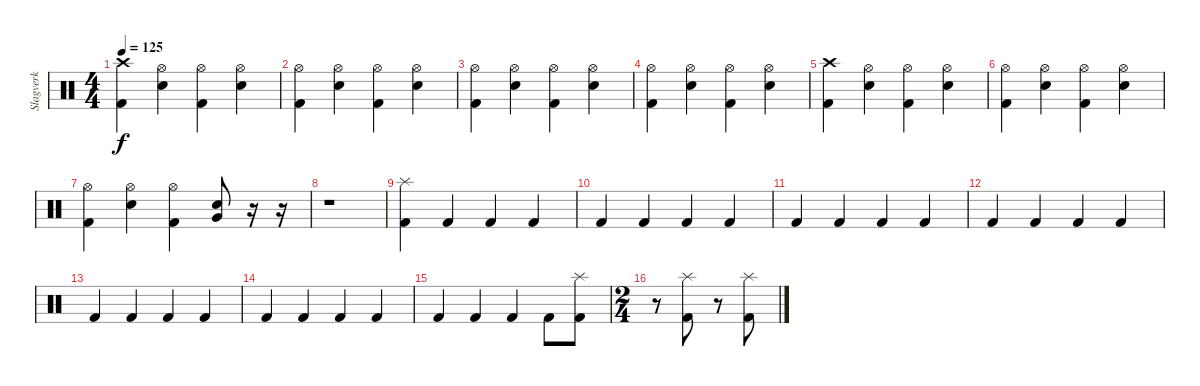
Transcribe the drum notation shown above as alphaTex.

\track ("Slagverk" "Slagverk") {instrument percussion}
\staff {score}
\articulation defaults
\ts (4 4)
\tempo 125
\clef neutral
\ks c
("Crash high (hit)" "Kick (hit) 2").4{dy f} ("Hi-Hat (open)" "Snare (hit) 2").4 ("Hi-Hat (open)" "Kick (hit) 2").4 ("Hi-Hat (open)" "Snare (hit) 2").4 |
("Hi-Hat (open)" "Kick (hit) 2").4 ("Hi-Hat (open)" "Snare (hit) 2").4 ("Hi-Hat (open)" "Kick (hit) 2").4 ("Hi-Hat (open)" "Snare (hit) 2").4 |
("Hi-Hat (open)" "Kick (hit) 2").4 ("Hi-Hat (open)" "Snare (hit) 2").4 ("Hi-Hat (open)" "Kick (hit) 2").4 ("Hi-Hat (open)" "Snare (hit) 2").4 |
("Hi-Hat (open)" "Kick (hit) 2").4 ("Hi-Hat (open)" "Snare (hit) 2").4 ("Hi-Hat (open)" "Kick (hit) 2").4 ("Hi-Hat (open)" "Snare (hit) 2").4 |
("Crash high (hit)" "Kick (hit) 2").4 ("Hi-Hat (open)" "Snare (hit) 2").4 ("Hi-Hat (open)" "Kick (hit) 2").4 ("Hi-Hat (open)" "Snare (hit) 2").4 |
("Hi-Hat (open)" "Kick (hit) 2").4 ("Hi-Hat (open)" "Snare (hit) 2").4 ("Hi-Hat (open)" "Kick (hit) 2").4 ("Hi-Hat (open)" "Snare (hit) 2").4 |
("Hi-Hat (open)" "Kick (hit) 2").4 ("Hi-Hat (open)" "Snare (hit) 2").4 ("Hi-Hat (open)" "Kick (hit) 2").4 ("Very Low Tom (hit)" "Snare (hit) 2").8 r.16 r.16 |
r.1 |
("Splash (hit)" "Kick (hit) 2").4 "Kick (hit) 2".4 "Kick (hit) 2".4 "Kick (hit) 2".4 |
"Kick (hit) 2".4 "Kick (hit) 2".4 "Kick (hit) 2".4 "Kick (hit) 2".4 |
"Kick (hit) 2".4 "Kick (hit) 2".4 "Kick (hit) 2".4 "Kick (hit) 2".4 |
"Kick (hit) 2".4 "Kick (hit) 2".4 "Kick (hit) 2".4 "Kick (hit) 2".4 |
"Kick (hit) 2".4 "Kick (hit) 2".4 "Kick (hit) 2".4 "Kick (hit) 2".4 |
"Kick (hit) 2".4 "Kick (hit) 2".4 "Kick (hit) 2".4 "Kick (hit) 2".4 |
"Kick (hit) 2".4 "Kick (hit) 2".4 "Kick (hit) 2".4 "Kick (hit) 2".8 ("Splash (hit)" "Kick (hit) 2").8 |
\ts (2 4)
r.8 ("Splash (hit)" "Kick (hit) 2").8 r.8 ("Splash (hit)" "Kick (hit) 2").8
